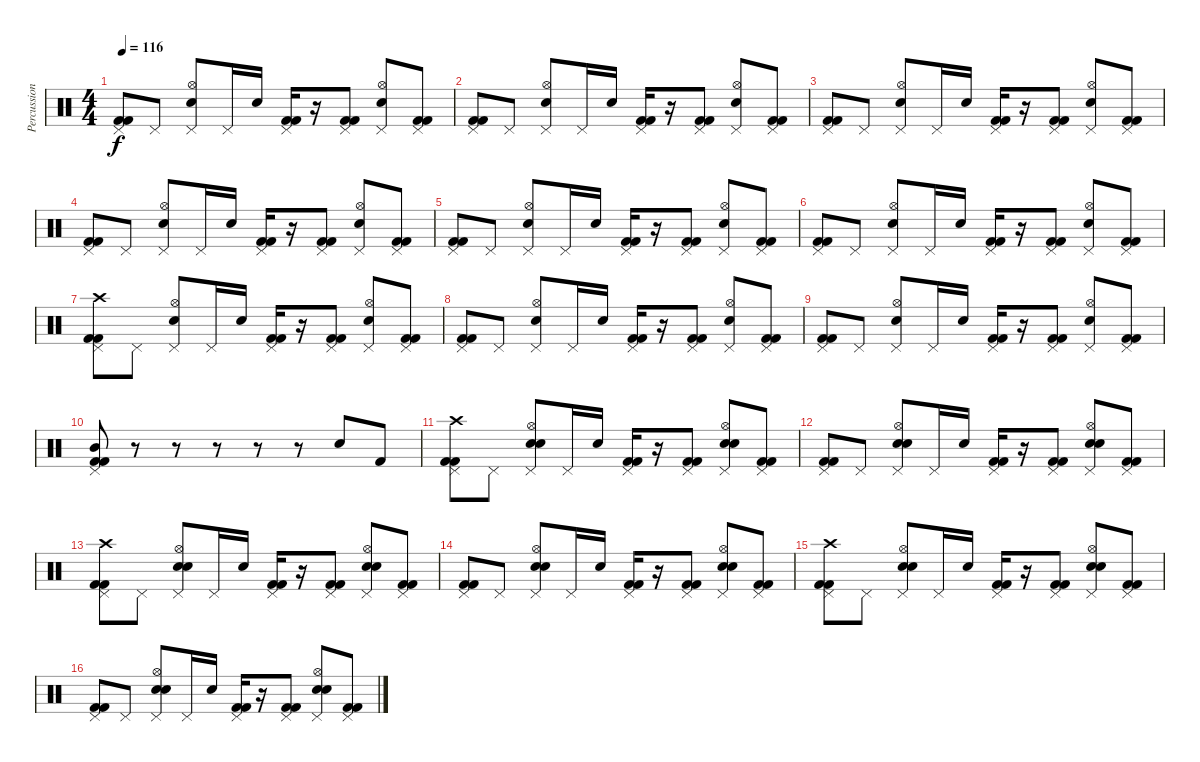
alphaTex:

\track ("Percussion" "Percussion") {instrument percussion}
\staff {score}
\articulation defaults
\ts (4 4)
\tempo 116
\clef neutral
\ks c
("Pedal Hi-Hat (hit)" "Kick (hit) 2" "Kick (hit) 2").8{dy f} "Pedal Hi-Hat (hit)".8 ("Pedal Hi-Hat (hit)" "Hi-Hat (open)" "Snare (hit) 2").8 "Pedal Hi-Hat (hit)".16 "Snare (hit) 2".16 ("Pedal Hi-Hat (hit)" "Kick (hit) 2" "Kick (hit) 2").16 r.16 ("Pedal Hi-Hat (hit)" "Kick (hit) 2" "Kick (hit) 2").8 ("Pedal Hi-Hat (hit)" "Hi-Hat (open)" "Snare (hit) 2").8 ("Pedal Hi-Hat (hit)" "Kick (hit) 2" "Kick (hit) 2").8 |
("Pedal Hi-Hat (hit)" "Kick (hit) 2" "Kick (hit) 2").8 "Pedal Hi-Hat (hit)".8 ("Pedal Hi-Hat (hit)" "Hi-Hat (open)" "Snare (hit) 2").8 "Pedal Hi-Hat (hit)".16 "Snare (hit) 2".16 ("Pedal Hi-Hat (hit)" "Kick (hit) 2" "Kick (hit) 2").16 r.16 ("Pedal Hi-Hat (hit)" "Kick (hit) 2" "Kick (hit) 2").8 ("Pedal Hi-Hat (hit)" "Hi-Hat (open)" "Snare (hit) 2").8 ("Pedal Hi-Hat (hit)" "Kick (hit) 2" "Kick (hit) 2").8 |
("Pedal Hi-Hat (hit)" "Kick (hit) 2" "Kick (hit) 2").8 "Pedal Hi-Hat (hit)".8 ("Pedal Hi-Hat (hit)" "Hi-Hat (open)" "Snare (hit) 2").8 "Pedal Hi-Hat (hit)".16 "Snare (hit) 2".16 ("Pedal Hi-Hat (hit)" "Kick (hit) 2" "Kick (hit) 2").16 r.16 ("Pedal Hi-Hat (hit)" "Kick (hit) 2" "Kick (hit) 2").8 ("Pedal Hi-Hat (hit)" "Hi-Hat (open)" "Snare (hit) 2").8 ("Pedal Hi-Hat (hit)" "Kick (hit) 2" "Kick (hit) 2").8 |
("Pedal Hi-Hat (hit)" "Kick (hit) 2" "Kick (hit) 2").8 "Pedal Hi-Hat (hit)".8 ("Pedal Hi-Hat (hit)" "Hi-Hat (open)" "Snare (hit) 2").8 "Pedal Hi-Hat (hit)".16 "Snare (hit) 2".16 ("Pedal Hi-Hat (hit)" "Kick (hit) 2" "Kick (hit) 2").16 r.16 ("Pedal Hi-Hat (hit)" "Kick (hit) 2" "Kick (hit) 2").8 ("Pedal Hi-Hat (hit)" "Hi-Hat (open)" "Snare (hit) 2").8 ("Pedal Hi-Hat (hit)" "Kick (hit) 2" "Kick (hit) 2").8 |
("Pedal Hi-Hat (hit)" "Kick (hit) 2" "Kick (hit) 2").8 "Pedal Hi-Hat (hit)".8 ("Pedal Hi-Hat (hit)" "Hi-Hat (open)" "Snare (hit) 2").8 "Pedal Hi-Hat (hit)".16 "Snare (hit) 2".16 ("Pedal Hi-Hat (hit)" "Kick (hit) 2" "Kick (hit) 2").16 r.16 ("Pedal Hi-Hat (hit)" "Kick (hit) 2" "Kick (hit) 2").8 ("Pedal Hi-Hat (hit)" "Hi-Hat (open)" "Snare (hit) 2").8 ("Pedal Hi-Hat (hit)" "Kick (hit) 2" "Kick (hit) 2").8 |
("Pedal Hi-Hat (hit)" "Kick (hit) 2" "Kick (hit) 2").8 "Pedal Hi-Hat (hit)".8 ("Pedal Hi-Hat (hit)" "Hi-Hat (open)" "Snare (hit) 2").8 "Pedal Hi-Hat (hit)".16 "Snare (hit) 2".16 ("Pedal Hi-Hat (hit)" "Kick (hit) 2" "Kick (hit) 2").16 r.16 ("Pedal Hi-Hat (hit)" "Kick (hit) 2" "Kick (hit) 2").8 ("Pedal Hi-Hat (hit)" "Hi-Hat (open)" "Snare (hit) 2").8 ("Pedal Hi-Hat (hit)" "Kick (hit) 2" "Kick (hit) 2").8 |
("Pedal Hi-Hat (hit)" "Crash high (hit)" "Kick (hit) 2" "Kick (hit) 2").8 "Pedal Hi-Hat (hit)".8 ("Pedal Hi-Hat (hit)" "Hi-Hat (open)" "Snare (hit) 2").8 "Pedal Hi-Hat (hit)".16 "Snare (hit) 2".16 ("Pedal Hi-Hat (hit)" "Kick (hit) 2" "Kick (hit) 2").16 r.16 ("Pedal Hi-Hat (hit)" "Kick (hit) 2" "Kick (hit) 2").8 ("Pedal Hi-Hat (hit)" "Hi-Hat (open)" "Snare (hit) 2").8 ("Pedal Hi-Hat (hit)" "Kick (hit) 2" "Kick (hit) 2").8 |
("Pedal Hi-Hat (hit)" "Kick (hit) 2" "Kick (hit) 2").8 "Pedal Hi-Hat (hit)".8 ("Pedal Hi-Hat (hit)" "Hi-Hat (open)" "Snare (hit) 2").8 "Pedal Hi-Hat (hit)".16 "Snare (hit) 2".16 ("Pedal Hi-Hat (hit)" "Kick (hit) 2" "Kick (hit) 2").16 r.16 ("Pedal Hi-Hat (hit)" "Kick (hit) 2" "Kick (hit) 2").8 ("Pedal Hi-Hat (hit)" "Hi-Hat (open)" "Snare (hit) 2").8 ("Pedal Hi-Hat (hit)" "Kick (hit) 2" "Kick (hit) 2").8 |
("Pedal Hi-Hat (hit)" "Kick (hit) 2" "Kick (hit) 2").8 "Pedal Hi-Hat (hit)".8 ("Pedal Hi-Hat (hit)" "Hi-Hat (open)" "Snare (hit) 2").8 "Pedal Hi-Hat (hit)".16 "Snare (hit) 2".16 ("Pedal Hi-Hat (hit)" "Kick (hit) 2" "Kick (hit) 2").16 r.16 ("Pedal Hi-Hat (hit)" "Kick (hit) 2" "Kick (hit) 2").8 ("Pedal Hi-Hat (hit)" "Hi-Hat (open)" "Snare (hit) 2").8 ("Pedal Hi-Hat (hit)" "Kick (hit) 2" "Kick (hit) 2").8 |
("Pedal Hi-Hat (hit)" "Mid Tom (hit)" "Kick (hit) 2" "Kick (hit) 2").8 r.8 r.8 r.8 r.8 r.8 "Snare (hit) 2".8 "Kick (hit) 2".8 |
("Pedal Hi-Hat (hit)" "Crash high (hit)" "Kick (hit) 2" "Kick (hit) 2").8 "Pedal Hi-Hat (hit)".8 ("Pedal Hi-Hat (hit)" "Hi-Hat (open)" "Snare (hit) 2" "Hand Clap (hit)").8 "Pedal Hi-Hat (hit)".16 "Snare (hit) 2".16 ("Pedal Hi-Hat (hit)" "Kick (hit) 2" "Kick (hit) 2").16 r.16 ("Pedal Hi-Hat (hit)" "Kick (hit) 2" "Kick (hit) 2").8 ("Pedal Hi-Hat (hit)" "Hi-Hat (open)" "Snare (hit) 2" "Hand Clap (hit)").8 ("Pedal Hi-Hat (hit)" "Kick (hit) 2" "Kick (hit) 2").8 |
("Pedal Hi-Hat (hit)" "Kick (hit) 2" "Kick (hit) 2").8 "Pedal Hi-Hat (hit)".8 ("Pedal Hi-Hat (hit)" "Hi-Hat (open)" "Snare (hit) 2" "Hand Clap (hit)").8 "Pedal Hi-Hat (hit)".16 "Snare (hit) 2".16 ("Pedal Hi-Hat (hit)" "Kick (hit) 2" "Kick (hit) 2").16 r.16 ("Pedal Hi-Hat (hit)" "Kick (hit) 2" "Kick (hit) 2").8 ("Pedal Hi-Hat (hit)" "Hi-Hat (open)" "Snare (hit) 2" "Hand Clap (hit)").8 ("Pedal Hi-Hat (hit)" "Kick (hit) 2" "Kick (hit) 2").8 |
("Pedal Hi-Hat (hit)" "Crash high (hit)" "Kick (hit) 2" "Kick (hit) 2").8 "Pedal Hi-Hat (hit)".8 ("Pedal Hi-Hat (hit)" "Hi-Hat (open)" "Snare (hit) 2" "Hand Clap (hit)").8 "Pedal Hi-Hat (hit)".16 "Snare (hit) 2".16 ("Pedal Hi-Hat (hit)" "Kick (hit) 2" "Kick (hit) 2").16 r.16 ("Pedal Hi-Hat (hit)" "Kick (hit) 2" "Kick (hit) 2").8 ("Pedal Hi-Hat (hit)" "Hi-Hat (open)" "Snare (hit) 2" "Hand Clap (hit)").8 ("Pedal Hi-Hat (hit)" "Kick (hit) 2" "Kick (hit) 2").8 |
("Pedal Hi-Hat (hit)" "Kick (hit) 2" "Kick (hit) 2").8 "Pedal Hi-Hat (hit)".8 ("Pedal Hi-Hat (hit)" "Hi-Hat (open)" "Snare (hit) 2" "Hand Clap (hit)").8 "Pedal Hi-Hat (hit)".16 "Snare (hit) 2".16 ("Pedal Hi-Hat (hit)" "Kick (hit) 2" "Kick (hit) 2").16 r.16 ("Pedal Hi-Hat (hit)" "Kick (hit) 2" "Kick (hit) 2").8 ("Pedal Hi-Hat (hit)" "Hi-Hat (open)" "Snare (hit) 2" "Hand Clap (hit)").8 ("Pedal Hi-Hat (hit)" "Kick (hit) 2" "Kick (hit) 2").8 |
("Pedal Hi-Hat (hit)" "Crash high (hit)" "Kick (hit) 2" "Kick (hit) 2").8 "Pedal Hi-Hat (hit)".8 ("Pedal Hi-Hat (hit)" "Hi-Hat (open)" "Snare (hit) 2" "Hand Clap (hit)").8 "Pedal Hi-Hat (hit)".16 "Snare (hit) 2".16 ("Pedal Hi-Hat (hit)" "Kick (hit) 2" "Kick (hit) 2").16 r.16 ("Pedal Hi-Hat (hit)" "Kick (hit) 2" "Kick (hit) 2").8 ("Pedal Hi-Hat (hit)" "Hi-Hat (open)" "Snare (hit) 2" "Hand Clap (hit)").8 ("Pedal Hi-Hat (hit)" "Kick (hit) 2" "Kick (hit) 2").8 |
("Pedal Hi-Hat (hit)" "Kick (hit) 2" "Kick (hit) 2").8 "Pedal Hi-Hat (hit)".8 ("Pedal Hi-Hat (hit)" "Hi-Hat (open)" "Snare (hit) 2" "Hand Clap (hit)").8 "Pedal Hi-Hat (hit)".16 "Snare (hit) 2".16 ("Pedal Hi-Hat (hit)" "Kick (hit) 2" "Kick (hit) 2").16 r.16 ("Pedal Hi-Hat (hit)" "Kick (hit) 2" "Kick (hit) 2").8 ("Pedal Hi-Hat (hit)" "Hi-Hat (open)" "Snare (hit) 2" "Hand Clap (hit)").8 ("Pedal Hi-Hat (hit)" "Kick (hit) 2" "Kick (hit) 2").8
